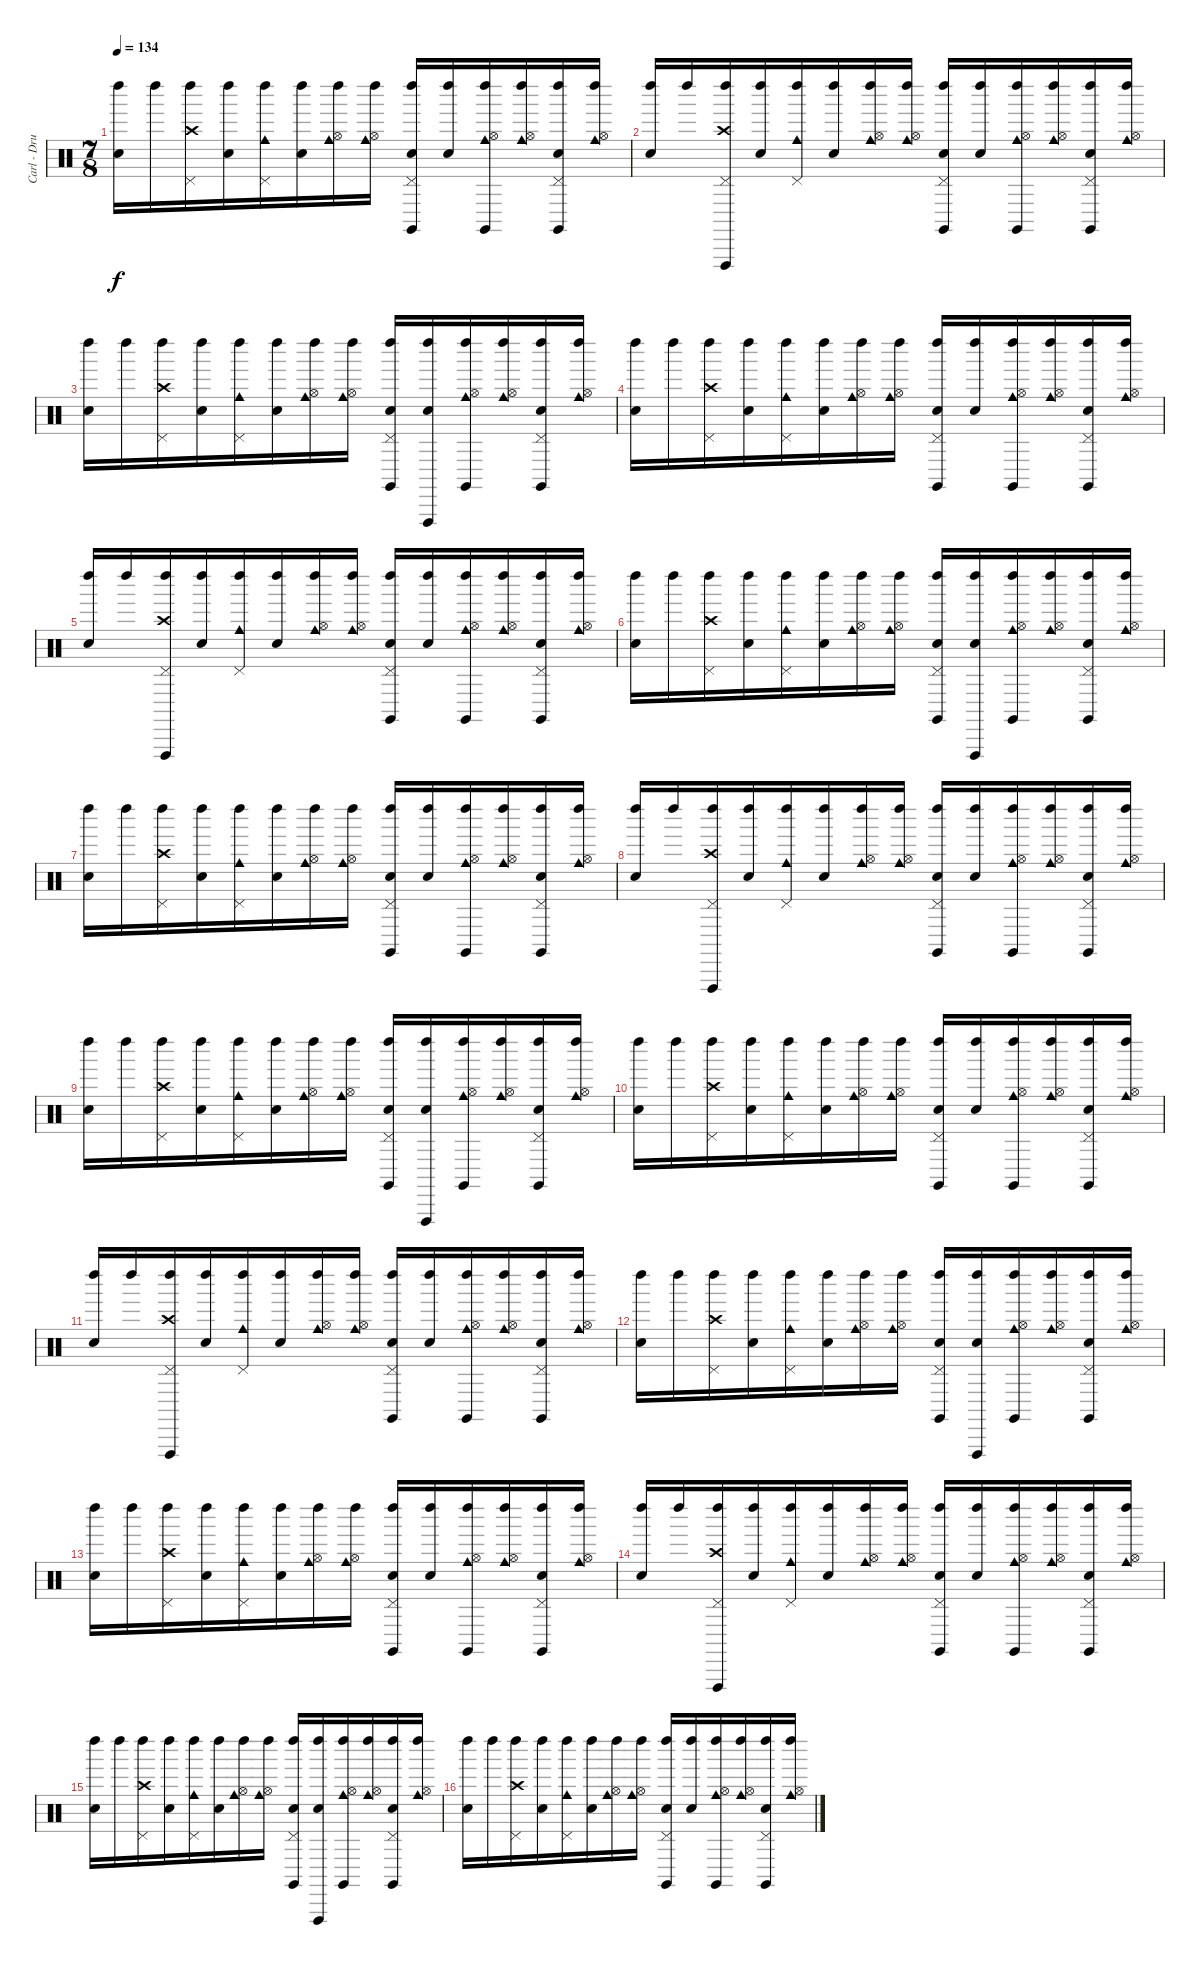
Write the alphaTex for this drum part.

\track ("Carl - Drums" "Carl - Dru") {instrument percussion}
\staff {score}
\articulation defaults
\ts (7 8)
\tempo 134
\clef neutral
\ks c
("Left Maraca (hit)" "Electric Snare (hit)").16{dy f} "Left Maraca (hit)".16 ("Left Maraca (hit)" "Crash high (hit)" "Pedal Hi-Hat (hit)").16 ("Left Maraca (hit)" "Electric Snare (hit)").16 ("Left Maraca (hit)" "Pedal Hi-Hat (hit)" "Cowbell medium (hit)").16 ("Left Maraca (hit)" "Electric Snare (hit)").16 ("Left Maraca (hit)" "Hi-Hat (open)" "Cowbell medium (hit)").16 ("Left Maraca (hit)" "Hi-Hat (open)" "Cowbell medium (hit)").16 ("Left Maraca (hit)" "Claves (hit)" "Electric Snare (hit)" "Pedal Hi-Hat (hit)").16 ("Left Maraca (hit)" "Electric Snare (hit)").16 ("Left Maraca (hit)" "Claves (hit)" "Hi-Hat (open)" "Cowbell medium (hit)").16 ("Left Maraca (hit)" "Hi-Hat (open)" "Cowbell medium (hit)").16 ("Left Maraca (hit)" "Claves (hit)" "Electric Snare (hit)" "Pedal Hi-Hat (hit)").16 ("Left Maraca (hit)" "Hi-Hat (open)" "Cowbell medium (hit)").16 |
("Left Maraca (hit)" "Electric Snare (hit)").16 "Left Maraca (hit)".16 ("Left Maraca (hit)" "Vibraslap (hit)" "Crash high (hit)" "Pedal Hi-Hat (hit)").16 ("Left Maraca (hit)" "Electric Snare (hit)").16 ("Left Maraca (hit)" "Pedal Hi-Hat (hit)" "Cowbell medium (hit)").16 ("Left Maraca (hit)" "Electric Snare (hit)").16 ("Left Maraca (hit)" "Hi-Hat (open)" "Cowbell medium (hit)").16 ("Left Maraca (hit)" "Hi-Hat (open)" "Cowbell medium (hit)").16 ("Left Maraca (hit)" "Claves (hit)" "Electric Snare (hit)" "Pedal Hi-Hat (hit)").16 ("Left Maraca (hit)" "Electric Snare (hit)").16 ("Left Maraca (hit)" "Claves (hit)" "Hi-Hat (open)" "Cowbell medium (hit)").16 ("Left Maraca (hit)" "Hi-Hat (open)" "Cowbell medium (hit)").16 ("Left Maraca (hit)" "Claves (hit)" "Electric Snare (hit)" "Pedal Hi-Hat (hit)").16 ("Left Maraca (hit)" "Hi-Hat (open)" "Cowbell medium (hit)").16 |
("Left Maraca (hit)" "Electric Snare (hit)").16 "Left Maraca (hit)".16 ("Left Maraca (hit)" "Crash high (hit)" "Pedal Hi-Hat (hit)").16 ("Left Maraca (hit)" "Electric Snare (hit)").16 ("Left Maraca (hit)" "Pedal Hi-Hat (hit)" "Cowbell medium (hit)").16 ("Left Maraca (hit)" "Electric Snare (hit)").16 ("Left Maraca (hit)" "Hi-Hat (open)" "Cowbell medium (hit)").16 ("Left Maraca (hit)" "Hi-Hat (open)" "Cowbell medium (hit)").16 ("Left Maraca (hit)" "Claves (hit)" "Electric Snare (hit)" "Pedal Hi-Hat (hit)").16 ("Left Maraca (hit)" "Vibraslap (hit)" "Electric Snare (hit)").16 ("Left Maraca (hit)" "Claves (hit)" "Hi-Hat (open)" "Cowbell medium (hit)").16 ("Left Maraca (hit)" "Hi-Hat (open)" "Cowbell medium (hit)").16 ("Left Maraca (hit)" "Claves (hit)" "Electric Snare (hit)" "Pedal Hi-Hat (hit)").16 ("Left Maraca (hit)" "Hi-Hat (open)" "Cowbell medium (hit)").16 |
("Left Maraca (hit)" "Electric Snare (hit)").16 "Left Maraca (hit)".16 ("Left Maraca (hit)" "Crash high (hit)" "Pedal Hi-Hat (hit)").16 ("Left Maraca (hit)" "Electric Snare (hit)").16 ("Left Maraca (hit)" "Pedal Hi-Hat (hit)" "Cowbell medium (hit)").16 ("Left Maraca (hit)" "Electric Snare (hit)").16 ("Left Maraca (hit)" "Hi-Hat (open)" "Cowbell medium (hit)").16 ("Left Maraca (hit)" "Hi-Hat (open)" "Cowbell medium (hit)").16 ("Left Maraca (hit)" "Claves (hit)" "Electric Snare (hit)" "Pedal Hi-Hat (hit)").16 ("Left Maraca (hit)" "Electric Snare (hit)").16 ("Left Maraca (hit)" "Claves (hit)" "Hi-Hat (open)" "Cowbell medium (hit)").16 ("Left Maraca (hit)" "Hi-Hat (open)" "Cowbell medium (hit)").16 ("Left Maraca (hit)" "Claves (hit)" "Electric Snare (hit)" "Pedal Hi-Hat (hit)").16 ("Left Maraca (hit)" "Hi-Hat (open)" "Cowbell medium (hit)").16 |
("Left Maraca (hit)" "Electric Snare (hit)").16 "Left Maraca (hit)".16 ("Left Maraca (hit)" "Vibraslap (hit)" "Crash high (hit)" "Pedal Hi-Hat (hit)").16 ("Left Maraca (hit)" "Electric Snare (hit)").16 ("Left Maraca (hit)" "Pedal Hi-Hat (hit)" "Cowbell medium (hit)").16 ("Left Maraca (hit)" "Electric Snare (hit)").16 ("Left Maraca (hit)" "Hi-Hat (open)" "Cowbell medium (hit)").16 ("Left Maraca (hit)" "Hi-Hat (open)" "Cowbell medium (hit)").16 ("Left Maraca (hit)" "Claves (hit)" "Electric Snare (hit)" "Pedal Hi-Hat (hit)").16 ("Left Maraca (hit)" "Electric Snare (hit)").16 ("Left Maraca (hit)" "Claves (hit)" "Hi-Hat (open)" "Cowbell medium (hit)").16 ("Left Maraca (hit)" "Hi-Hat (open)" "Cowbell medium (hit)").16 ("Left Maraca (hit)" "Claves (hit)" "Electric Snare (hit)" "Pedal Hi-Hat (hit)").16 ("Left Maraca (hit)" "Hi-Hat (open)" "Cowbell medium (hit)").16 |
("Left Maraca (hit)" "Electric Snare (hit)").16 "Left Maraca (hit)".16 ("Left Maraca (hit)" "Crash high (hit)" "Pedal Hi-Hat (hit)").16 ("Left Maraca (hit)" "Electric Snare (hit)").16 ("Left Maraca (hit)" "Pedal Hi-Hat (hit)" "Cowbell medium (hit)").16 ("Left Maraca (hit)" "Electric Snare (hit)").16 ("Left Maraca (hit)" "Hi-Hat (open)" "Cowbell medium (hit)").16 ("Left Maraca (hit)" "Hi-Hat (open)" "Cowbell medium (hit)").16 ("Left Maraca (hit)" "Claves (hit)" "Electric Snare (hit)" "Pedal Hi-Hat (hit)").16 ("Left Maraca (hit)" "Vibraslap (hit)" "Electric Snare (hit)").16 ("Left Maraca (hit)" "Claves (hit)" "Hi-Hat (open)" "Cowbell medium (hit)").16 ("Left Maraca (hit)" "Hi-Hat (open)" "Cowbell medium (hit)").16 ("Left Maraca (hit)" "Claves (hit)" "Electric Snare (hit)" "Pedal Hi-Hat (hit)").16 ("Left Maraca (hit)" "Hi-Hat (open)" "Cowbell medium (hit)").16 |
("Left Maraca (hit)" "Electric Snare (hit)").16 "Left Maraca (hit)".16 ("Left Maraca (hit)" "Crash high (hit)" "Pedal Hi-Hat (hit)").16 ("Left Maraca (hit)" "Electric Snare (hit)").16 ("Left Maraca (hit)" "Pedal Hi-Hat (hit)" "Cowbell medium (hit)").16 ("Left Maraca (hit)" "Electric Snare (hit)").16 ("Left Maraca (hit)" "Hi-Hat (open)" "Cowbell medium (hit)").16 ("Left Maraca (hit)" "Hi-Hat (open)" "Cowbell medium (hit)").16 ("Left Maraca (hit)" "Claves (hit)" "Electric Snare (hit)" "Pedal Hi-Hat (hit)").16 ("Left Maraca (hit)" "Electric Snare (hit)").16 ("Left Maraca (hit)" "Claves (hit)" "Hi-Hat (open)" "Cowbell medium (hit)").16 ("Left Maraca (hit)" "Hi-Hat (open)" "Cowbell medium (hit)").16 ("Left Maraca (hit)" "Claves (hit)" "Electric Snare (hit)" "Pedal Hi-Hat (hit)").16 ("Left Maraca (hit)" "Hi-Hat (open)" "Cowbell medium (hit)").16 |
("Left Maraca (hit)" "Electric Snare (hit)").16 "Left Maraca (hit)".16 ("Left Maraca (hit)" "Vibraslap (hit)" "Crash high (hit)" "Pedal Hi-Hat (hit)").16 ("Left Maraca (hit)" "Electric Snare (hit)").16 ("Left Maraca (hit)" "Pedal Hi-Hat (hit)" "Cowbell medium (hit)").16 ("Left Maraca (hit)" "Electric Snare (hit)").16 ("Left Maraca (hit)" "Hi-Hat (open)" "Cowbell medium (hit)").16 ("Left Maraca (hit)" "Hi-Hat (open)" "Cowbell medium (hit)").16 ("Left Maraca (hit)" "Claves (hit)" "Electric Snare (hit)" "Pedal Hi-Hat (hit)").16 ("Left Maraca (hit)" "Electric Snare (hit)").16 ("Left Maraca (hit)" "Claves (hit)" "Hi-Hat (open)" "Cowbell medium (hit)").16 ("Left Maraca (hit)" "Hi-Hat (open)" "Cowbell medium (hit)").16 ("Left Maraca (hit)" "Claves (hit)" "Electric Snare (hit)" "Pedal Hi-Hat (hit)").16 ("Left Maraca (hit)" "Hi-Hat (open)" "Cowbell medium (hit)").16 |
("Left Maraca (hit)" "Electric Snare (hit)").16 "Left Maraca (hit)".16 ("Left Maraca (hit)" "Crash high (hit)" "Pedal Hi-Hat (hit)").16 ("Left Maraca (hit)" "Electric Snare (hit)").16 ("Left Maraca (hit)" "Pedal Hi-Hat (hit)" "Cowbell medium (hit)").16 ("Left Maraca (hit)" "Electric Snare (hit)").16 ("Left Maraca (hit)" "Hi-Hat (open)" "Cowbell medium (hit)").16 ("Left Maraca (hit)" "Hi-Hat (open)" "Cowbell medium (hit)").16 ("Left Maraca (hit)" "Claves (hit)" "Electric Snare (hit)" "Pedal Hi-Hat (hit)").16 ("Left Maraca (hit)" "Vibraslap (hit)" "Electric Snare (hit)").16 ("Left Maraca (hit)" "Claves (hit)" "Hi-Hat (open)" "Cowbell medium (hit)").16 ("Left Maraca (hit)" "Hi-Hat (open)" "Cowbell medium (hit)").16 ("Left Maraca (hit)" "Claves (hit)" "Electric Snare (hit)" "Pedal Hi-Hat (hit)").16 ("Left Maraca (hit)" "Hi-Hat (open)" "Cowbell medium (hit)").16 |
("Left Maraca (hit)" "Electric Snare (hit)").16 "Left Maraca (hit)".16 ("Left Maraca (hit)" "Crash high (hit)" "Pedal Hi-Hat (hit)").16 ("Left Maraca (hit)" "Electric Snare (hit)").16 ("Left Maraca (hit)" "Pedal Hi-Hat (hit)" "Cowbell medium (hit)").16 ("Left Maraca (hit)" "Electric Snare (hit)").16 ("Left Maraca (hit)" "Hi-Hat (open)" "Cowbell medium (hit)").16 ("Left Maraca (hit)" "Hi-Hat (open)" "Cowbell medium (hit)").16 ("Left Maraca (hit)" "Claves (hit)" "Electric Snare (hit)" "Pedal Hi-Hat (hit)").16 ("Left Maraca (hit)" "Electric Snare (hit)").16 ("Left Maraca (hit)" "Claves (hit)" "Hi-Hat (open)" "Cowbell medium (hit)").16 ("Left Maraca (hit)" "Hi-Hat (open)" "Cowbell medium (hit)").16 ("Left Maraca (hit)" "Claves (hit)" "Electric Snare (hit)" "Pedal Hi-Hat (hit)").16 ("Left Maraca (hit)" "Hi-Hat (open)" "Cowbell medium (hit)").16 |
("Left Maraca (hit)" "Electric Snare (hit)").16 "Left Maraca (hit)".16 ("Left Maraca (hit)" "Vibraslap (hit)" "Crash high (hit)" "Pedal Hi-Hat (hit)").16 ("Left Maraca (hit)" "Electric Snare (hit)").16 ("Left Maraca (hit)" "Pedal Hi-Hat (hit)" "Cowbell medium (hit)").16 ("Left Maraca (hit)" "Electric Snare (hit)").16 ("Left Maraca (hit)" "Hi-Hat (open)" "Cowbell medium (hit)").16 ("Left Maraca (hit)" "Hi-Hat (open)" "Cowbell medium (hit)").16 ("Left Maraca (hit)" "Claves (hit)" "Electric Snare (hit)" "Pedal Hi-Hat (hit)").16 ("Left Maraca (hit)" "Electric Snare (hit)").16 ("Left Maraca (hit)" "Claves (hit)" "Hi-Hat (open)" "Cowbell medium (hit)").16 ("Left Maraca (hit)" "Hi-Hat (open)" "Cowbell medium (hit)").16 ("Left Maraca (hit)" "Claves (hit)" "Electric Snare (hit)" "Pedal Hi-Hat (hit)").16 ("Left Maraca (hit)" "Hi-Hat (open)" "Cowbell medium (hit)").16 |
("Left Maraca (hit)" "Electric Snare (hit)").16 "Left Maraca (hit)".16 ("Left Maraca (hit)" "Crash high (hit)" "Pedal Hi-Hat (hit)").16 ("Left Maraca (hit)" "Electric Snare (hit)").16 ("Left Maraca (hit)" "Pedal Hi-Hat (hit)" "Cowbell medium (hit)").16 ("Left Maraca (hit)" "Electric Snare (hit)").16 ("Left Maraca (hit)" "Hi-Hat (open)" "Cowbell medium (hit)").16 ("Left Maraca (hit)" "Hi-Hat (open)" "Cowbell medium (hit)").16 ("Left Maraca (hit)" "Claves (hit)" "Electric Snare (hit)" "Pedal Hi-Hat (hit)").16 ("Left Maraca (hit)" "Vibraslap (hit)" "Electric Snare (hit)").16 ("Left Maraca (hit)" "Claves (hit)" "Hi-Hat (open)" "Cowbell medium (hit)").16 ("Left Maraca (hit)" "Hi-Hat (open)" "Cowbell medium (hit)").16 ("Left Maraca (hit)" "Claves (hit)" "Electric Snare (hit)" "Pedal Hi-Hat (hit)").16 ("Left Maraca (hit)" "Hi-Hat (open)" "Cowbell medium (hit)").16 |
("Left Maraca (hit)" "Electric Snare (hit)").16 "Left Maraca (hit)".16 ("Left Maraca (hit)" "Crash high (hit)" "Pedal Hi-Hat (hit)").16 ("Left Maraca (hit)" "Electric Snare (hit)").16 ("Left Maraca (hit)" "Pedal Hi-Hat (hit)" "Cowbell medium (hit)").16 ("Left Maraca (hit)" "Electric Snare (hit)").16 ("Left Maraca (hit)" "Hi-Hat (open)" "Cowbell medium (hit)").16 ("Left Maraca (hit)" "Hi-Hat (open)" "Cowbell medium (hit)").16 ("Left Maraca (hit)" "Claves (hit)" "Electric Snare (hit)" "Pedal Hi-Hat (hit)").16 ("Left Maraca (hit)" "Electric Snare (hit)").16 ("Left Maraca (hit)" "Claves (hit)" "Hi-Hat (open)" "Cowbell medium (hit)").16 ("Left Maraca (hit)" "Hi-Hat (open)" "Cowbell medium (hit)").16 ("Left Maraca (hit)" "Claves (hit)" "Electric Snare (hit)" "Pedal Hi-Hat (hit)").16 ("Left Maraca (hit)" "Hi-Hat (open)" "Cowbell medium (hit)").16 |
("Left Maraca (hit)" "Electric Snare (hit)").16 "Left Maraca (hit)".16 ("Left Maraca (hit)" "Vibraslap (hit)" "Crash high (hit)" "Pedal Hi-Hat (hit)").16 ("Left Maraca (hit)" "Electric Snare (hit)").16 ("Left Maraca (hit)" "Pedal Hi-Hat (hit)" "Cowbell medium (hit)").16 ("Left Maraca (hit)" "Electric Snare (hit)").16 ("Left Maraca (hit)" "Hi-Hat (open)" "Cowbell medium (hit)").16 ("Left Maraca (hit)" "Hi-Hat (open)" "Cowbell medium (hit)").16 ("Left Maraca (hit)" "Claves (hit)" "Electric Snare (hit)" "Pedal Hi-Hat (hit)").16 ("Left Maraca (hit)" "Electric Snare (hit)").16 ("Left Maraca (hit)" "Claves (hit)" "Hi-Hat (open)" "Cowbell medium (hit)").16 ("Left Maraca (hit)" "Hi-Hat (open)" "Cowbell medium (hit)").16 ("Left Maraca (hit)" "Claves (hit)" "Electric Snare (hit)" "Pedal Hi-Hat (hit)").16 ("Left Maraca (hit)" "Hi-Hat (open)" "Cowbell medium (hit)").16 |
("Left Maraca (hit)" "Electric Snare (hit)").16 "Left Maraca (hit)".16 ("Left Maraca (hit)" "Crash high (hit)" "Pedal Hi-Hat (hit)").16 ("Left Maraca (hit)" "Electric Snare (hit)").16 ("Left Maraca (hit)" "Pedal Hi-Hat (hit)" "Cowbell medium (hit)").16 ("Left Maraca (hit)" "Electric Snare (hit)").16 ("Left Maraca (hit)" "Hi-Hat (open)" "Cowbell medium (hit)").16 ("Left Maraca (hit)" "Hi-Hat (open)" "Cowbell medium (hit)").16 ("Left Maraca (hit)" "Claves (hit)" "Electric Snare (hit)" "Pedal Hi-Hat (hit)").16 ("Left Maraca (hit)" "Vibraslap (hit)" "Electric Snare (hit)").16 ("Left Maraca (hit)" "Claves (hit)" "Hi-Hat (open)" "Cowbell medium (hit)").16 ("Left Maraca (hit)" "Hi-Hat (open)" "Cowbell medium (hit)").16 ("Left Maraca (hit)" "Claves (hit)" "Electric Snare (hit)" "Pedal Hi-Hat (hit)").16 ("Left Maraca (hit)" "Hi-Hat (open)" "Cowbell medium (hit)").16 |
("Left Maraca (hit)" "Electric Snare (hit)").16 "Left Maraca (hit)".16 ("Left Maraca (hit)" "Crash high (hit)" "Pedal Hi-Hat (hit)").16 ("Left Maraca (hit)" "Electric Snare (hit)").16 ("Left Maraca (hit)" "Pedal Hi-Hat (hit)" "Cowbell medium (hit)").16 ("Left Maraca (hit)" "Electric Snare (hit)").16 ("Left Maraca (hit)" "Hi-Hat (open)" "Cowbell medium (hit)").16 ("Left Maraca (hit)" "Hi-Hat (open)" "Cowbell medium (hit)").16 ("Left Maraca (hit)" "Claves (hit)" "Electric Snare (hit)" "Pedal Hi-Hat (hit)").16 ("Left Maraca (hit)" "Electric Snare (hit)").16 ("Left Maraca (hit)" "Claves (hit)" "Hi-Hat (open)" "Cowbell medium (hit)").16 ("Left Maraca (hit)" "Hi-Hat (open)" "Cowbell medium (hit)").16 ("Left Maraca (hit)" "Claves (hit)" "Electric Snare (hit)" "Pedal Hi-Hat (hit)").16 ("Left Maraca (hit)" "Hi-Hat (open)" "Cowbell medium (hit)").16
